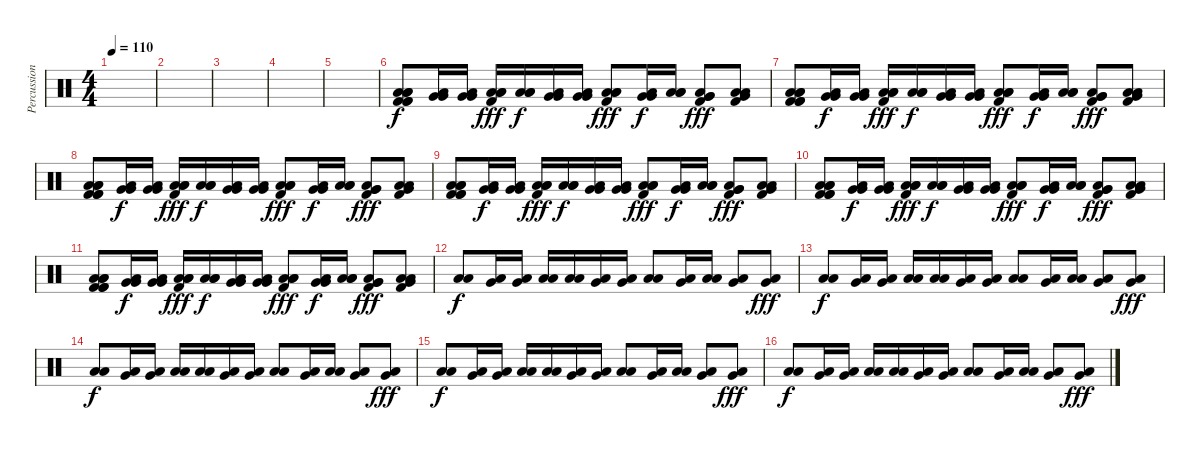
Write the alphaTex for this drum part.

\track ("Percussion" "Percussion") {instrument percussion}
\staff {score}
\articulation defaults
\ts (4 4)
\tempo 110
\clef neutral
\ks c
|
|
|
|
|
("Low Floor Tom (hit)" "Low Floor Tom (hit)" "Low Floor Tom (hit)" "Kick (hit) 2" "Kick (hit) 2" "Kick (hit) 2").8 ("Low Tom (hit)" "Very Low Tom (hit)" "Very Low Tom (hit)").16{dy f} ("Low Tom (hit)" "Very Low Tom (hit)" "Very Low Tom (hit)").16 ("Low Floor Tom (hit)" "Low Floor Tom (hit)" "Low Floor Tom (hit)" "Kick (hit) 2").16{dy fff} ("Low Floor Tom (hit)" "Low Floor Tom (hit)" "Low Floor Tom (hit)").16{dy f} ("Low Tom (hit)" "Very Low Tom (hit)" "Very Low Tom (hit)").16 ("Low Tom (hit)" "Very Low Tom (hit)" "Very Low Tom (hit)").16 ("Low Floor Tom (hit)" "Low Floor Tom (hit)" "Low Floor Tom (hit)" "Kick (hit) 2").8{dy fff} ("Low Tom (hit)" "Very Low Tom (hit)" "Very Low Tom (hit)").16{dy f} ("Low Tom (hit)" "Low Tom (hit)" "Low Tom (hit)").16 ("Low Floor Tom (hit)" "Very Low Tom (hit)" "Very Low Tom (hit)" "Kick (hit) 2").8{dy fff} ("Low Floor Tom (hit)" "Very Low Tom (hit)" "Low Floor Tom (hit)" "Kick (hit) 2").8 |
("Low Floor Tom (hit)" "Low Floor Tom (hit)" "Low Floor Tom (hit)" "Kick (hit) 2" "Kick (hit) 2" "Kick (hit) 2").8 ("Low Tom (hit)" "Very Low Tom (hit)" "Very Low Tom (hit)").16{dy f} ("Low Tom (hit)" "Very Low Tom (hit)" "Very Low Tom (hit)").16 ("Low Floor Tom (hit)" "Low Floor Tom (hit)" "Low Floor Tom (hit)" "Kick (hit) 2").16{dy fff} ("Low Floor Tom (hit)" "Low Floor Tom (hit)" "Low Floor Tom (hit)").16{dy f} ("Low Tom (hit)" "Very Low Tom (hit)" "Very Low Tom (hit)").16 ("Low Tom (hit)" "Very Low Tom (hit)" "Very Low Tom (hit)").16 ("Low Floor Tom (hit)" "Low Floor Tom (hit)" "Low Floor Tom (hit)" "Kick (hit) 2").8{dy fff} ("Low Tom (hit)" "Very Low Tom (hit)" "Very Low Tom (hit)").16{dy f} ("Low Tom (hit)" "Low Tom (hit)" "Low Tom (hit)").16 ("Low Floor Tom (hit)" "Very Low Tom (hit)" "Very Low Tom (hit)" "Kick (hit) 2").8{dy fff} ("Low Floor Tom (hit)" "Very Low Tom (hit)" "Low Floor Tom (hit)" "Kick (hit) 2").8 |
("Low Floor Tom (hit)" "Low Floor Tom (hit)" "Low Floor Tom (hit)" "Kick (hit) 2" "Kick (hit) 2" "Kick (hit) 2").8 ("Low Tom (hit)" "Very Low Tom (hit)" "Very Low Tom (hit)").16{dy f} ("Low Tom (hit)" "Very Low Tom (hit)" "Very Low Tom (hit)").16 ("Low Floor Tom (hit)" "Low Floor Tom (hit)" "Low Floor Tom (hit)" "Kick (hit) 2").16{dy fff} ("Low Floor Tom (hit)" "Low Floor Tom (hit)" "Low Floor Tom (hit)").16{dy f} ("Low Tom (hit)" "Very Low Tom (hit)" "Very Low Tom (hit)").16 ("Low Tom (hit)" "Very Low Tom (hit)" "Very Low Tom (hit)").16 ("Low Floor Tom (hit)" "Low Floor Tom (hit)" "Low Floor Tom (hit)" "Kick (hit) 2").8{dy fff} ("Low Tom (hit)" "Very Low Tom (hit)" "Very Low Tom (hit)").16{dy f} ("Low Tom (hit)" "Low Tom (hit)" "Low Tom (hit)").16 ("Low Floor Tom (hit)" "Very Low Tom (hit)" "Very Low Tom (hit)" "Kick (hit) 2").8{dy fff} ("Low Floor Tom (hit)" "Very Low Tom (hit)" "Low Floor Tom (hit)" "Kick (hit) 2").8 |
("Low Floor Tom (hit)" "Low Floor Tom (hit)" "Low Floor Tom (hit)" "Kick (hit) 2" "Kick (hit) 2" "Kick (hit) 2").8 ("Low Tom (hit)" "Very Low Tom (hit)" "Very Low Tom (hit)").16{dy f} ("Low Tom (hit)" "Very Low Tom (hit)" "Very Low Tom (hit)").16 ("Low Floor Tom (hit)" "Low Floor Tom (hit)" "Low Floor Tom (hit)" "Kick (hit) 2").16{dy fff} ("Low Floor Tom (hit)" "Low Floor Tom (hit)" "Low Floor Tom (hit)").16{dy f} ("Low Tom (hit)" "Very Low Tom (hit)" "Very Low Tom (hit)").16 ("Low Tom (hit)" "Very Low Tom (hit)" "Very Low Tom (hit)").16 ("Low Floor Tom (hit)" "Low Floor Tom (hit)" "Low Floor Tom (hit)" "Kick (hit) 2").8{dy fff} ("Low Tom (hit)" "Very Low Tom (hit)" "Very Low Tom (hit)").16{dy f} ("Low Tom (hit)" "Low Tom (hit)" "Low Tom (hit)").16 ("Low Floor Tom (hit)" "Very Low Tom (hit)" "Very Low Tom (hit)" "Kick (hit) 2").8{dy fff} ("Low Floor Tom (hit)" "Very Low Tom (hit)" "Low Floor Tom (hit)" "Kick (hit) 2").8 |
("Low Floor Tom (hit)" "Low Floor Tom (hit)" "Low Floor Tom (hit)" "Kick (hit) 2" "Kick (hit) 2" "Kick (hit) 2").8 ("Low Tom (hit)" "Very Low Tom (hit)" "Very Low Tom (hit)").16{dy f} ("Low Tom (hit)" "Very Low Tom (hit)" "Very Low Tom (hit)").16 ("Low Floor Tom (hit)" "Low Floor Tom (hit)" "Low Floor Tom (hit)" "Kick (hit) 2").16{dy fff} ("Low Floor Tom (hit)" "Low Floor Tom (hit)" "Low Floor Tom (hit)").16{dy f} ("Low Tom (hit)" "Very Low Tom (hit)" "Very Low Tom (hit)").16 ("Low Tom (hit)" "Very Low Tom (hit)" "Very Low Tom (hit)").16 ("Low Floor Tom (hit)" "Low Floor Tom (hit)" "Low Floor Tom (hit)" "Kick (hit) 2").8{dy fff} ("Low Tom (hit)" "Very Low Tom (hit)" "Very Low Tom (hit)").16{dy f} ("Low Tom (hit)" "Low Tom (hit)" "Low Tom (hit)").16 ("Low Floor Tom (hit)" "Very Low Tom (hit)" "Very Low Tom (hit)" "Kick (hit) 2").8{dy fff} ("Low Floor Tom (hit)" "Very Low Tom (hit)" "Low Floor Tom (hit)" "Kick (hit) 2").8 |
("Low Floor Tom (hit)" "Low Floor Tom (hit)" "Low Floor Tom (hit)" "Kick (hit) 2" "Kick (hit) 2" "Kick (hit) 2").8 ("Low Tom (hit)" "Very Low Tom (hit)" "Very Low Tom (hit)").16{dy f} ("Low Tom (hit)" "Very Low Tom (hit)" "Very Low Tom (hit)").16 ("Low Floor Tom (hit)" "Low Floor Tom (hit)" "Low Floor Tom (hit)" "Kick (hit) 2").16{dy fff} ("Low Floor Tom (hit)" "Low Floor Tom (hit)" "Low Floor Tom (hit)").16{dy f} ("Low Tom (hit)" "Very Low Tom (hit)" "Very Low Tom (hit)").16 ("Low Tom (hit)" "Very Low Tom (hit)" "Very Low Tom (hit)").16 ("Low Floor Tom (hit)" "Low Floor Tom (hit)" "Low Floor Tom (hit)" "Kick (hit) 2").8{dy fff} ("Low Tom (hit)" "Very Low Tom (hit)" "Very Low Tom (hit)").16{dy f} ("Low Tom (hit)" "Low Tom (hit)" "Low Tom (hit)").16 ("Low Floor Tom (hit)" "Very Low Tom (hit)" "Very Low Tom (hit)" "Kick (hit) 2").8{dy fff} ("Low Floor Tom (hit)" "Very Low Tom (hit)" "Low Floor Tom (hit)" "Kick (hit) 2").8 |
("Low Floor Tom (hit)" "Low Floor Tom (hit)").8{dy f} ("Low Tom (hit)" "Very Low Tom (hit)").16 ("Low Tom (hit)" "Very Low Tom (hit)").16 ("Low Floor Tom (hit)" "Low Floor Tom (hit)").16 ("Low Floor Tom (hit)" "Low Floor Tom (hit)").16 ("Low Tom (hit)" "Very Low Tom (hit)").16 ("Low Tom (hit)" "Very Low Tom (hit)").16 ("Low Floor Tom (hit)" "Low Floor Tom (hit)").8 ("Low Tom (hit)" "Very Low Tom (hit)").16 ("Low Tom (hit)" "Low Tom (hit)").16 ("Low Floor Tom (hit)" "Very Low Tom (hit)").8 ("Low Floor Tom (hit)" "Very Low Tom (hit)").8{dy fff} |
("Low Floor Tom (hit)" "Low Floor Tom (hit)").8{dy f} ("Low Tom (hit)" "Very Low Tom (hit)").16 ("Low Tom (hit)" "Very Low Tom (hit)").16 ("Low Floor Tom (hit)" "Low Floor Tom (hit)").16 ("Low Floor Tom (hit)" "Low Floor Tom (hit)").16 ("Low Tom (hit)" "Very Low Tom (hit)").16 ("Low Tom (hit)" "Very Low Tom (hit)").16 ("Low Floor Tom (hit)" "Low Floor Tom (hit)").8 ("Low Tom (hit)" "Very Low Tom (hit)").16 ("Low Tom (hit)" "Low Tom (hit)").16 ("Low Floor Tom (hit)" "Very Low Tom (hit)").8 ("Low Floor Tom (hit)" "Very Low Tom (hit)").8{dy fff} |
("Low Floor Tom (hit)" "Low Floor Tom (hit)").8{dy f} ("Low Tom (hit)" "Very Low Tom (hit)").16 ("Low Tom (hit)" "Very Low Tom (hit)").16 ("Low Floor Tom (hit)" "Low Floor Tom (hit)").16 ("Low Floor Tom (hit)" "Low Floor Tom (hit)").16 ("Low Tom (hit)" "Very Low Tom (hit)").16 ("Low Tom (hit)" "Very Low Tom (hit)").16 ("Low Floor Tom (hit)" "Low Floor Tom (hit)").8 ("Low Tom (hit)" "Very Low Tom (hit)").16 ("Low Tom (hit)" "Low Tom (hit)").16 ("Low Floor Tom (hit)" "Very Low Tom (hit)").8 ("Low Floor Tom (hit)" "Very Low Tom (hit)").8{dy fff} |
("Low Floor Tom (hit)" "Low Floor Tom (hit)").8{dy f} ("Low Tom (hit)" "Very Low Tom (hit)").16 ("Low Tom (hit)" "Very Low Tom (hit)").16 ("Low Floor Tom (hit)" "Low Floor Tom (hit)").16 ("Low Floor Tom (hit)" "Low Floor Tom (hit)").16 ("Low Tom (hit)" "Very Low Tom (hit)").16 ("Low Tom (hit)" "Very Low Tom (hit)").16 ("Low Floor Tom (hit)" "Low Floor Tom (hit)").8 ("Low Tom (hit)" "Very Low Tom (hit)").16 ("Low Tom (hit)" "Low Tom (hit)").16 ("Low Floor Tom (hit)" "Very Low Tom (hit)").8 ("Low Floor Tom (hit)" "Very Low Tom (hit)").8{dy fff} |
("Low Floor Tom (hit)" "Low Floor Tom (hit)").8{dy f} ("Low Tom (hit)" "Very Low Tom (hit)").16 ("Low Tom (hit)" "Very Low Tom (hit)").16 ("Low Floor Tom (hit)" "Low Floor Tom (hit)").16 ("Low Floor Tom (hit)" "Low Floor Tom (hit)").16 ("Low Tom (hit)" "Very Low Tom (hit)").16 ("Low Tom (hit)" "Very Low Tom (hit)").16 ("Low Floor Tom (hit)" "Low Floor Tom (hit)").8 ("Low Tom (hit)" "Very Low Tom (hit)").16 ("Low Tom (hit)" "Low Tom (hit)").16 ("Low Floor Tom (hit)" "Very Low Tom (hit)").8 ("Low Floor Tom (hit)" "Very Low Tom (hit)").8{dy fff}
